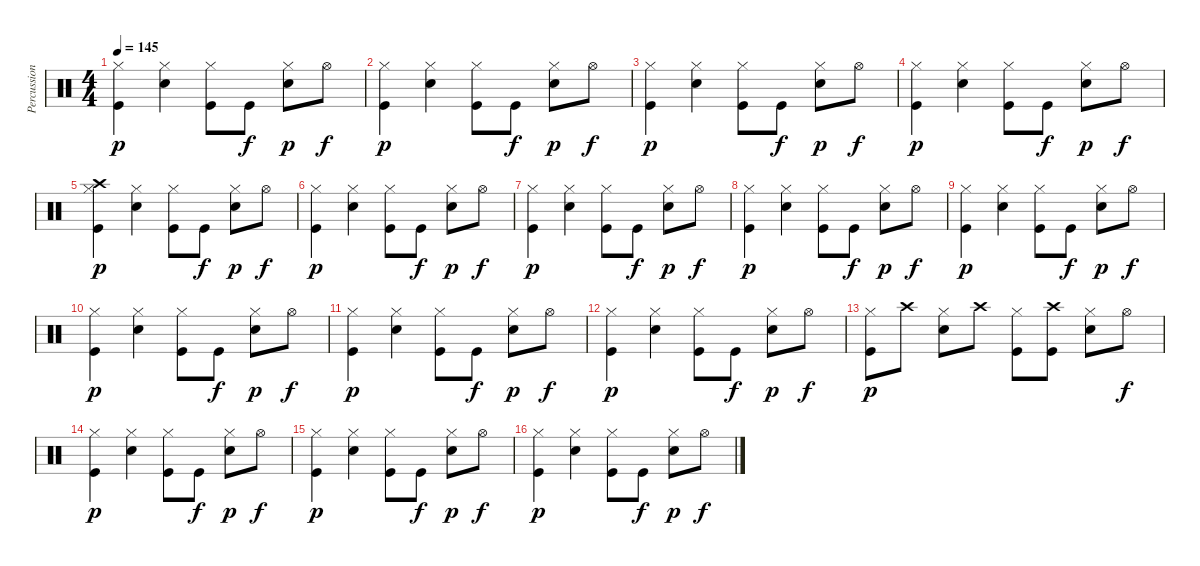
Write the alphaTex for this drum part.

\track ("Percussion" "Percussion") {instrument percussion}
\staff {score}
\articulation defaults
\ts (4 4)
\tempo 145
\clef neutral
\ks c
("Hi-Hat (closed)" "Kick (hit)").4{dy p} ("Hi-Hat (closed)" "Snare (hit) 2").4 ("Hi-Hat (closed)" "Kick (hit)").8 "Kick (hit)".8{dy f} ("Hi-Hat (closed)" "Snare (hit) 2").8{dy p} "Hi-Hat (open)".8{dy f} |
("Hi-Hat (closed)" "Kick (hit)").4{dy p} ("Hi-Hat (closed)" "Snare (hit) 2").4 ("Hi-Hat (closed)" "Kick (hit)").8 "Kick (hit)".8{dy f} ("Hi-Hat (closed)" "Snare (hit) 2").8{dy p} "Hi-Hat (open)".8{dy f} |
("Hi-Hat (closed)" "Kick (hit)").4{dy p} ("Hi-Hat (closed)" "Snare (hit) 2").4 ("Hi-Hat (closed)" "Kick (hit)").8 "Kick (hit)".8{dy f} ("Hi-Hat (closed)" "Snare (hit) 2").8{dy p} "Hi-Hat (open)".8{dy f} |
("Hi-Hat (closed)" "Kick (hit)").4{dy p} ("Hi-Hat (closed)" "Snare (hit) 2").4 ("Hi-Hat (closed)" "Kick (hit)").8 "Kick (hit)".8{dy f} ("Hi-Hat (closed)" "Snare (hit) 2").8{dy p} "Hi-Hat (open)".8{dy f} |
("Hi-Hat (closed)" "Crash high (hit)" "Kick (hit)").4{dy p} ("Hi-Hat (closed)" "Snare (hit) 2").4 ("Hi-Hat (closed)" "Kick (hit)").8 "Kick (hit)".8{dy f} ("Hi-Hat (closed)" "Snare (hit) 2").8{dy p} "Hi-Hat (open)".8{dy f} |
("Hi-Hat (closed)" "Kick (hit)").4{dy p} ("Hi-Hat (closed)" "Snare (hit) 2").4 ("Hi-Hat (closed)" "Kick (hit)").8 "Kick (hit)".8{dy f} ("Hi-Hat (closed)" "Snare (hit) 2").8{dy p} "Hi-Hat (open)".8{dy f} |
("Hi-Hat (closed)" "Kick (hit)").4{dy p} ("Hi-Hat (closed)" "Snare (hit) 2").4 ("Hi-Hat (closed)" "Kick (hit)").8 "Kick (hit)".8{dy f} ("Hi-Hat (closed)" "Snare (hit) 2").8{dy p} "Hi-Hat (open)".8{dy f} |
("Hi-Hat (closed)" "Kick (hit)").4{dy p} ("Hi-Hat (closed)" "Snare (hit) 2").4 ("Hi-Hat (closed)" "Kick (hit)").8 "Kick (hit)".8{dy f} ("Hi-Hat (closed)" "Snare (hit) 2").8{dy p} "Hi-Hat (open)".8{dy f} |
("Hi-Hat (closed)" "Kick (hit)").4{dy p} ("Hi-Hat (closed)" "Snare (hit) 2").4 ("Hi-Hat (closed)" "Kick (hit)").8 "Kick (hit)".8{dy f} ("Hi-Hat (closed)" "Snare (hit) 2").8{dy p} "Hi-Hat (open)".8{dy f} |
("Hi-Hat (closed)" "Kick (hit)").4{dy p} ("Hi-Hat (closed)" "Snare (hit) 2").4 ("Hi-Hat (closed)" "Kick (hit)").8 "Kick (hit)".8{dy f} ("Hi-Hat (closed)" "Snare (hit) 2").8{dy p} "Hi-Hat (open)".8{dy f} |
("Hi-Hat (closed)" "Kick (hit)").4{dy p} ("Hi-Hat (closed)" "Snare (hit) 2").4 ("Hi-Hat (closed)" "Kick (hit)").8 "Kick (hit)".8{dy f} ("Hi-Hat (closed)" "Snare (hit) 2").8{dy p} "Hi-Hat (open)".8{dy f} |
("Hi-Hat (closed)" "Kick (hit)").4{dy p} ("Hi-Hat (closed)" "Snare (hit) 2").4 ("Hi-Hat (closed)" "Kick (hit)").8 "Kick (hit)".8{dy f} ("Hi-Hat (closed)" "Snare (hit) 2").8{dy p} "Hi-Hat (open)".8{dy f} |
("Hi-Hat (closed)" "Kick (hit)").8{dy p} "Crash high (hit)".8 ("Hi-Hat (closed)" "Snare (hit) 2").8 "Crash high (hit)".8 ("Hi-Hat (closed)" "Kick (hit)").8 ("Crash high (hit)" "Kick (hit)").8 ("Hi-Hat (closed)" "Snare (hit) 2").8 "Hi-Hat (open)".8{dy f} |
("Hi-Hat (closed)" "Kick (hit)").4{dy p} ("Hi-Hat (closed)" "Snare (hit) 2").4 ("Hi-Hat (closed)" "Kick (hit)").8 "Kick (hit)".8{dy f} ("Hi-Hat (closed)" "Snare (hit) 2").8{dy p} "Hi-Hat (open)".8{dy f} |
("Hi-Hat (closed)" "Kick (hit)").4{dy p} ("Hi-Hat (closed)" "Snare (hit) 2").4 ("Hi-Hat (closed)" "Kick (hit)").8 "Kick (hit)".8{dy f} ("Hi-Hat (closed)" "Snare (hit) 2").8{dy p} "Hi-Hat (open)".8{dy f} |
("Hi-Hat (closed)" "Kick (hit)").4{dy p} ("Hi-Hat (closed)" "Snare (hit) 2").4 ("Hi-Hat (closed)" "Kick (hit)").8 "Kick (hit)".8{dy f} ("Hi-Hat (closed)" "Snare (hit) 2").8{dy p} "Hi-Hat (open)".8{dy f}
